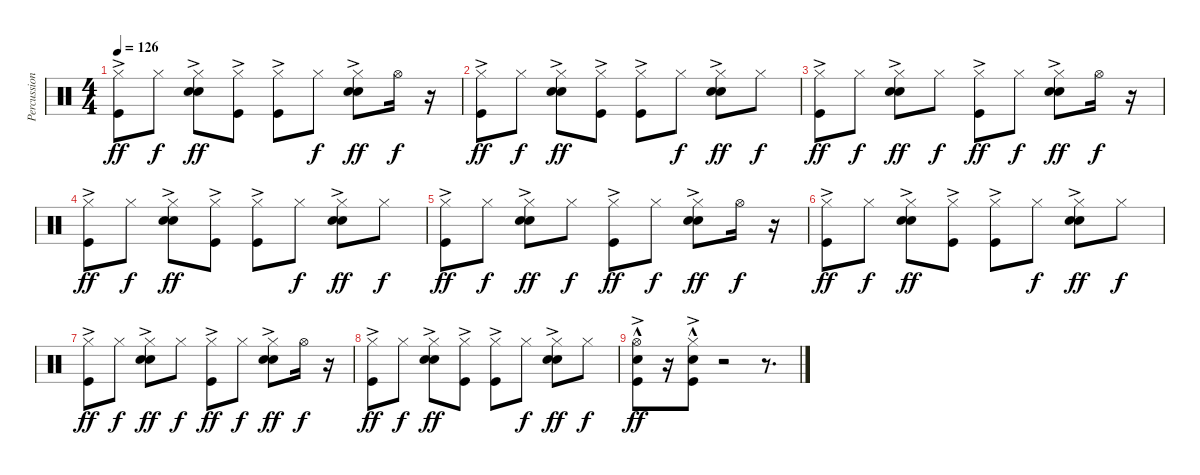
\track ("Percussion" "Percussion") {instrument percussion}
\staff {score}
\articulation defaults
\ts (4 4)
\tempo 126
\clef neutral
\ks c
("Hi-Hat (closed)" "Kick (hit)"{ac}).8{dy ff} "Hi-Hat (closed)".8{dy f} ("Hi-Hat (closed)" "Hand Clap (hit)"{ac} "Snare (hit) 2"{ac}).8{dy ff} ("Hi-Hat (closed)" "Kick (hit)"{ac}).8 ("Hi-Hat (closed)" "Kick (hit)"{ac}).8 "Hi-Hat (closed)".8{dy f} ("Hi-Hat (closed)" "Hand Clap (hit)"{ac} "Snare (hit) 2"{ac}).8{dy ff} "Hi-Hat (open)".16{dy f} r.16 |
("Hi-Hat (closed)" "Kick (hit)"{ac}).8{dy ff} "Hi-Hat (closed)".8{dy f} ("Hi-Hat (closed)" "Hand Clap (hit)"{ac} "Snare (hit) 2"{ac}).8{dy ff} ("Hi-Hat (closed)" "Kick (hit)"{ac}).8 ("Hi-Hat (closed)" "Kick (hit)"{ac}).8 "Hi-Hat (closed)".8{dy f} ("Hi-Hat (closed)" "Hand Clap (hit)"{ac} "Snare (hit) 2"{ac}).8{dy ff} "Hi-Hat (closed)".8{dy f} |
("Hi-Hat (closed)" "Kick (hit)"{ac}).8{dy ff} "Hi-Hat (closed)".8{dy f} ("Hi-Hat (closed)" "Hand Clap (hit)"{ac} "Snare (hit) 2"{ac}).8{dy ff} "Hi-Hat (closed)".8{dy f} ("Hi-Hat (closed)" "Kick (hit)"{ac}).8{dy ff} "Hi-Hat (closed)".8{dy f} ("Hi-Hat (closed)" "Hand Clap (hit)"{ac} "Snare (hit) 2"{ac}).8{dy ff} "Hi-Hat (open)".16{dy f} r.16 |
("Hi-Hat (closed)" "Kick (hit)"{ac}).8{dy ff} "Hi-Hat (closed)".8{dy f} ("Hi-Hat (closed)" "Hand Clap (hit)"{ac} "Snare (hit) 2"{ac}).8{dy ff} ("Hi-Hat (closed)" "Kick (hit)"{ac}).8 ("Hi-Hat (closed)" "Kick (hit)"{ac}).8 "Hi-Hat (closed)".8{dy f} ("Hi-Hat (closed)" "Hand Clap (hit)"{ac} "Snare (hit) 2"{ac}).8{dy ff} "Hi-Hat (closed)".8{dy f} |
("Hi-Hat (closed)" "Kick (hit)"{ac}).8{dy ff} "Hi-Hat (closed)".8{dy f} ("Hi-Hat (closed)" "Hand Clap (hit)"{ac} "Snare (hit) 2"{ac}).8{dy ff} "Hi-Hat (closed)".8{dy f} ("Hi-Hat (closed)" "Kick (hit)"{ac}).8{dy ff} "Hi-Hat (closed)".8{dy f} ("Hi-Hat (closed)" "Hand Clap (hit)"{ac} "Snare (hit) 2"{ac}).8{dy ff} "Hi-Hat (open)".16{dy f} r.16 |
("Hi-Hat (closed)" "Kick (hit)"{ac}).8{dy ff} "Hi-Hat (closed)".8{dy f} ("Hi-Hat (closed)" "Hand Clap (hit)"{ac} "Snare (hit) 2"{ac}).8{dy ff} ("Hi-Hat (closed)" "Kick (hit)"{ac}).8 ("Hi-Hat (closed)" "Kick (hit)"{ac}).8 "Hi-Hat (closed)".8{dy f} ("Hi-Hat (closed)" "Hand Clap (hit)"{ac} "Snare (hit) 2"{ac}).8{dy ff} "Hi-Hat (closed)".8{dy f} |
("Hi-Hat (closed)" "Kick (hit)"{ac}).8{dy ff} "Hi-Hat (closed)".8{dy f} ("Hi-Hat (closed)" "Hand Clap (hit)"{ac} "Snare (hit) 2"{ac}).8{dy ff} "Hi-Hat (closed)".8{dy f} ("Hi-Hat (closed)" "Kick (hit)"{ac}).8{dy ff} "Hi-Hat (closed)".8{dy f} ("Hi-Hat (closed)" "Hand Clap (hit)"{ac} "Snare (hit) 2"{ac}).8{dy ff} "Hi-Hat (open)".16{dy f} r.16 |
("Hi-Hat (closed)" "Kick (hit)"{ac}).8{dy ff} "Hi-Hat (closed)".8{dy f} ("Hi-Hat (closed)" "Hand Clap (hit)"{ac} "Snare (hit) 2"{ac}).8{dy ff} ("Hi-Hat (closed)" "Kick (hit)"{ac}).8 ("Hi-Hat (closed)" "Kick (hit)"{ac}).8 "Hi-Hat (closed)".8{dy f} ("Hi-Hat (closed)" "Hand Clap (hit)"{ac} "Snare (hit) 2"{ac}).8{dy ff} "Hi-Hat (closed)".8{dy f} |
("Hi-Hat (open)" "Hand Clap (hit)"{hac} "Kick (hit)"{ac}).8{dy ff} r.16 ("Hi-Hat (closed)" "Hand Clap (hit)"{hac} "Kick (hit)"{ac}).8 r.2 r.8{d}
